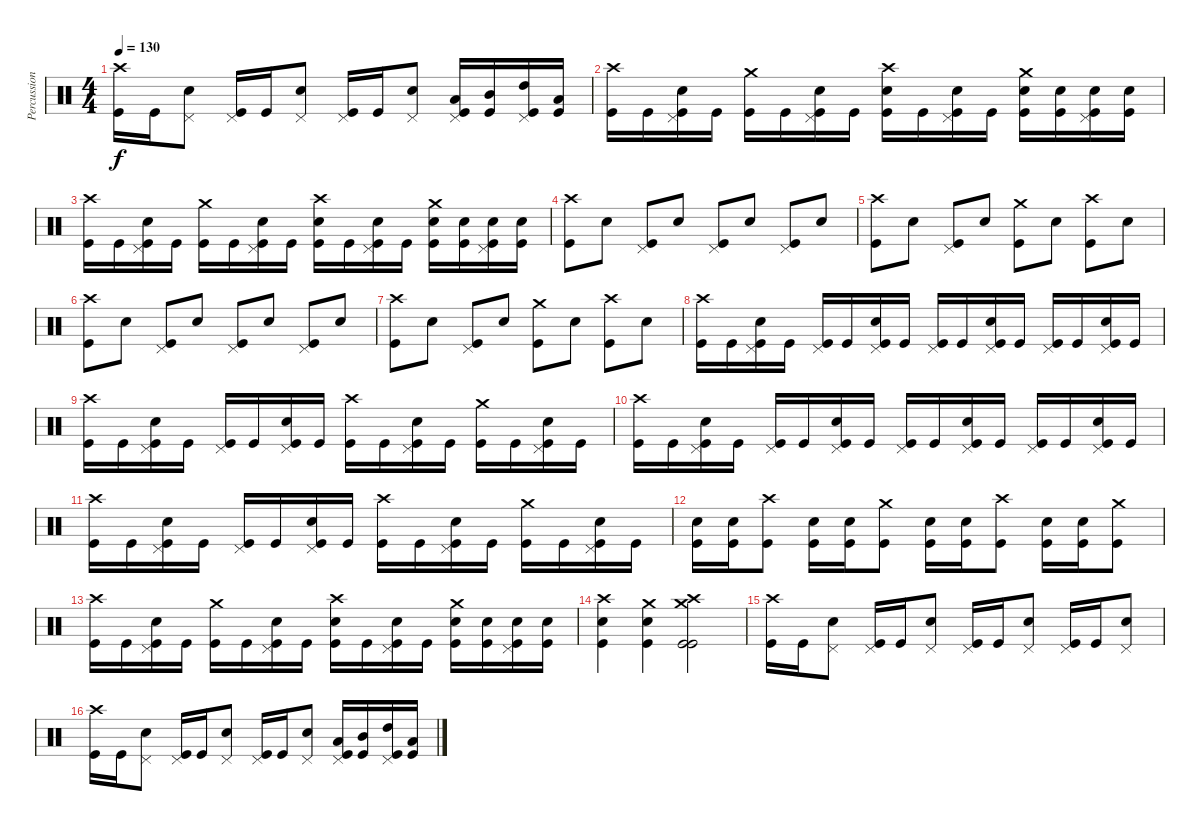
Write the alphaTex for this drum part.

\track ("Percussion" "Percussion") {instrument percussion}
\staff {score}
\articulation defaults
\ts (4 4)
\tempo 130
\clef neutral
\ks c
("Crash high (hit)" "Kick (hit)").16{dy f} "Kick (hit)".16 ("Pedal Hi-Hat (hit)" "Snare (hit) 2").8 ("Pedal Hi-Hat (hit)" "Kick (hit)").16 "Kick (hit)".16 ("Pedal Hi-Hat (hit)" "Snare (hit) 2").8 ("Pedal Hi-Hat (hit)" "Kick (hit)").16 "Kick (hit)".16 ("Pedal Hi-Hat (hit)" "Snare (hit) 2").8 ("Low Tom (hit)" "Pedal Hi-Hat (hit)" "Kick (hit)").16 ("Mid Tom (hit)" "Kick (hit)").16 ("High Tom (hit)" "Pedal Hi-Hat (hit)" "Kick (hit)").16 ("Low Tom (hit)" "Kick (hit)").16 |
("Crash high (hit)" "Kick (hit)").16 "Kick (hit)".16 ("Pedal Hi-Hat (hit)" "Snare (hit) 2" "Kick (hit)").16 "Kick (hit)".16 ("Crash medium (hit)" "Kick (hit)").16 "Kick (hit)".16 ("Pedal Hi-Hat (hit)" "Snare (hit) 2" "Kick (hit)").16 "Kick (hit)".16 ("Crash high (hit)" "Snare (hit) 2" "Kick (hit)").16 "Kick (hit)".16 ("Pedal Hi-Hat (hit)" "Snare (hit) 2" "Kick (hit)").16 "Kick (hit)".16 ("Crash medium (hit)" "Snare (hit) 2" "Kick (hit)").16 ("Snare (hit) 2" "Kick (hit)").16 ("Pedal Hi-Hat (hit)" "Snare (hit) 2" "Kick (hit)").16 ("Snare (hit) 2" "Kick (hit)").16 |
("Crash high (hit)" "Kick (hit)").16 "Kick (hit)".16 ("Pedal Hi-Hat (hit)" "Snare (hit) 2" "Kick (hit)").16 "Kick (hit)".16 ("Crash medium (hit)" "Kick (hit)").16 "Kick (hit)".16 ("Pedal Hi-Hat (hit)" "Snare (hit) 2" "Kick (hit)").16 "Kick (hit)".16 ("Crash high (hit)" "Snare (hit) 2" "Kick (hit)").16 "Kick (hit)".16 ("Pedal Hi-Hat (hit)" "Snare (hit) 2" "Kick (hit)").16 "Kick (hit)".16 ("Crash medium (hit)" "Snare (hit) 2" "Kick (hit)").16 ("Snare (hit) 2" "Kick (hit)").16 ("Pedal Hi-Hat (hit)" "Snare (hit) 2" "Kick (hit)").16 ("Snare (hit) 2" "Kick (hit)").16 |
("Crash high (hit)" "Kick (hit)").8 "Snare (hit) 2".8 ("Pedal Hi-Hat (hit)" "Kick (hit)").8 "Snare (hit) 2".8 ("Pedal Hi-Hat (hit)" "Kick (hit)").8 "Snare (hit) 2".8 ("Pedal Hi-Hat (hit)" "Kick (hit)").8 "Snare (hit) 2".8 |
("Crash high (hit)" "Kick (hit)").8 "Snare (hit) 2".8 ("Pedal Hi-Hat (hit)" "Kick (hit)").8 "Snare (hit) 2".8 ("Crash medium (hit)" "Kick (hit)").8 "Snare (hit) 2".8 ("Crash high (hit)" "Kick (hit)").8 "Snare (hit) 2".8 |
("Crash high (hit)" "Kick (hit)").8 "Snare (hit) 2".8 ("Pedal Hi-Hat (hit)" "Kick (hit)").8 "Snare (hit) 2".8 ("Pedal Hi-Hat (hit)" "Kick (hit)").8 "Snare (hit) 2".8 ("Pedal Hi-Hat (hit)" "Kick (hit)").8 "Snare (hit) 2".8 |
("Crash high (hit)" "Kick (hit)").8 "Snare (hit) 2".8 ("Pedal Hi-Hat (hit)" "Kick (hit)").8 "Snare (hit) 2".8 ("Crash medium (hit)" "Kick (hit)").8 "Snare (hit) 2".8 ("Crash high (hit)" "Kick (hit)").8 "Snare (hit) 2".8 |
("Crash high (hit)" "Kick (hit)").16 "Kick (hit)".16 ("Pedal Hi-Hat (hit)" "Snare (hit) 2" "Kick (hit)").16 "Kick (hit)".16 ("Pedal Hi-Hat (hit)" "Kick (hit)").16 "Kick (hit)".16 ("Pedal Hi-Hat (hit)" "Snare (hit) 2" "Kick (hit)").16 "Kick (hit)".16 ("Pedal Hi-Hat (hit)" "Kick (hit)").16 "Kick (hit)".16 ("Pedal Hi-Hat (hit)" "Snare (hit) 2" "Kick (hit)").16 "Kick (hit)".16 ("Pedal Hi-Hat (hit)" "Kick (hit)").16 "Kick (hit)".16 ("Pedal Hi-Hat (hit)" "Snare (hit) 2" "Kick (hit)").16 "Kick (hit)".16 |
("Crash high (hit)" "Kick (hit)").16 "Kick (hit)".16 ("Pedal Hi-Hat (hit)" "Snare (hit) 2" "Kick (hit)").16 "Kick (hit)".16 ("Pedal Hi-Hat (hit)" "Kick (hit)").16 "Kick (hit)".16 ("Pedal Hi-Hat (hit)" "Snare (hit) 2" "Kick (hit)").16 "Kick (hit)".16 ("Crash high (hit)" "Kick (hit)").16 "Kick (hit)".16 ("Pedal Hi-Hat (hit)" "Snare (hit) 2" "Kick (hit)").16 "Kick (hit)".16 ("Crash medium (hit)" "Kick (hit)").16 "Kick (hit)".16 ("Pedal Hi-Hat (hit)" "Snare (hit) 2" "Kick (hit)").16 "Kick (hit)".16 |
("Crash high (hit)" "Kick (hit)").16 "Kick (hit)".16 ("Pedal Hi-Hat (hit)" "Snare (hit) 2" "Kick (hit)").16 "Kick (hit)".16 ("Pedal Hi-Hat (hit)" "Kick (hit)").16 "Kick (hit)".16 ("Pedal Hi-Hat (hit)" "Snare (hit) 2" "Kick (hit)").16 "Kick (hit)".16 ("Pedal Hi-Hat (hit)" "Kick (hit)").16 "Kick (hit)".16 ("Pedal Hi-Hat (hit)" "Snare (hit) 2" "Kick (hit)").16 "Kick (hit)".16 ("Pedal Hi-Hat (hit)" "Kick (hit)").16 "Kick (hit)".16 ("Pedal Hi-Hat (hit)" "Snare (hit) 2" "Kick (hit)").16 "Kick (hit)".16 |
("Crash high (hit)" "Kick (hit)").16 "Kick (hit)".16 ("Pedal Hi-Hat (hit)" "Snare (hit) 2" "Kick (hit)").16 "Kick (hit)".16 ("Pedal Hi-Hat (hit)" "Kick (hit)").16 "Kick (hit)".16 ("Pedal Hi-Hat (hit)" "Snare (hit) 2" "Kick (hit)").16 "Kick (hit)".16 ("Crash high (hit)" "Kick (hit)").16 "Kick (hit)".16 ("Pedal Hi-Hat (hit)" "Snare (hit) 2" "Kick (hit)").16 "Kick (hit)".16 ("Crash medium (hit)" "Kick (hit)").16 "Kick (hit)".16 ("Pedal Hi-Hat (hit)" "Snare (hit) 2" "Kick (hit)").16 "Kick (hit)".16 |
("Snare (hit) 2" "Kick (hit)").16 ("Snare (hit) 2" "Kick (hit)").16 ("Crash high (hit)" "Kick (hit)").8 ("Snare (hit) 2" "Kick (hit)").16 ("Snare (hit) 2" "Kick (hit)").16 ("Crash medium (hit)" "Kick (hit)").8 ("Snare (hit) 2" "Kick (hit)").16 ("Snare (hit) 2" "Kick (hit)").16 ("Crash high (hit)" "Kick (hit)").8 ("Snare (hit) 2" "Kick (hit)").16 ("Snare (hit) 2" "Kick (hit)").16 ("Crash medium (hit)" "Kick (hit)").8 |
("Crash high (hit)" "Kick (hit)").16 "Kick (hit)".16 ("Pedal Hi-Hat (hit)" "Snare (hit) 2" "Kick (hit)").16 "Kick (hit)".16 ("Crash medium (hit)" "Kick (hit)").16 "Kick (hit)".16 ("Pedal Hi-Hat (hit)" "Snare (hit) 2" "Kick (hit)").16 "Kick (hit)".16 ("Crash high (hit)" "Snare (hit) 2" "Kick (hit)").16 "Kick (hit)".16 ("Pedal Hi-Hat (hit)" "Snare (hit) 2" "Kick (hit)").16 "Kick (hit)".16 ("Crash medium (hit)" "Snare (hit) 2" "Kick (hit)").16 ("Snare (hit) 2" "Kick (hit)").16 ("Pedal Hi-Hat (hit)" "Snare (hit) 2" "Kick (hit)").16 ("Snare (hit) 2" "Kick (hit)").16 |
("Crash high (hit)" "Snare (hit) 2" "Kick (hit)").4 ("Crash medium (hit)" "Snare (hit) 2" "Kick (hit)").4 ("Crash medium (hit)" "Crash high (hit)" "Kick (hit)" "Kick (hit)").2 |
("Crash high (hit)" "Kick (hit)").16 "Kick (hit)".16 ("Pedal Hi-Hat (hit)" "Snare (hit) 2").8 ("Pedal Hi-Hat (hit)" "Kick (hit)").16 "Kick (hit)".16 ("Pedal Hi-Hat (hit)" "Snare (hit) 2").8 ("Pedal Hi-Hat (hit)" "Kick (hit)").16 "Kick (hit)".16 ("Pedal Hi-Hat (hit)" "Snare (hit) 2").8 ("Pedal Hi-Hat (hit)" "Kick (hit)").16 "Kick (hit)".16 ("Pedal Hi-Hat (hit)" "Snare (hit) 2").8 |
("Crash high (hit)" "Kick (hit)").16 "Kick (hit)".16 ("Pedal Hi-Hat (hit)" "Snare (hit) 2").8 ("Pedal Hi-Hat (hit)" "Kick (hit)").16 "Kick (hit)".16 ("Pedal Hi-Hat (hit)" "Snare (hit) 2").8 ("Pedal Hi-Hat (hit)" "Kick (hit)").16 "Kick (hit)".16 ("Pedal Hi-Hat (hit)" "Snare (hit) 2").8 ("Low Tom (hit)" "Pedal Hi-Hat (hit)" "Kick (hit)").16 ("Mid Tom (hit)" "Kick (hit)").16 ("High Tom (hit)" "Pedal Hi-Hat (hit)" "Kick (hit)").16 ("Low Tom (hit)" "Kick (hit)").16
